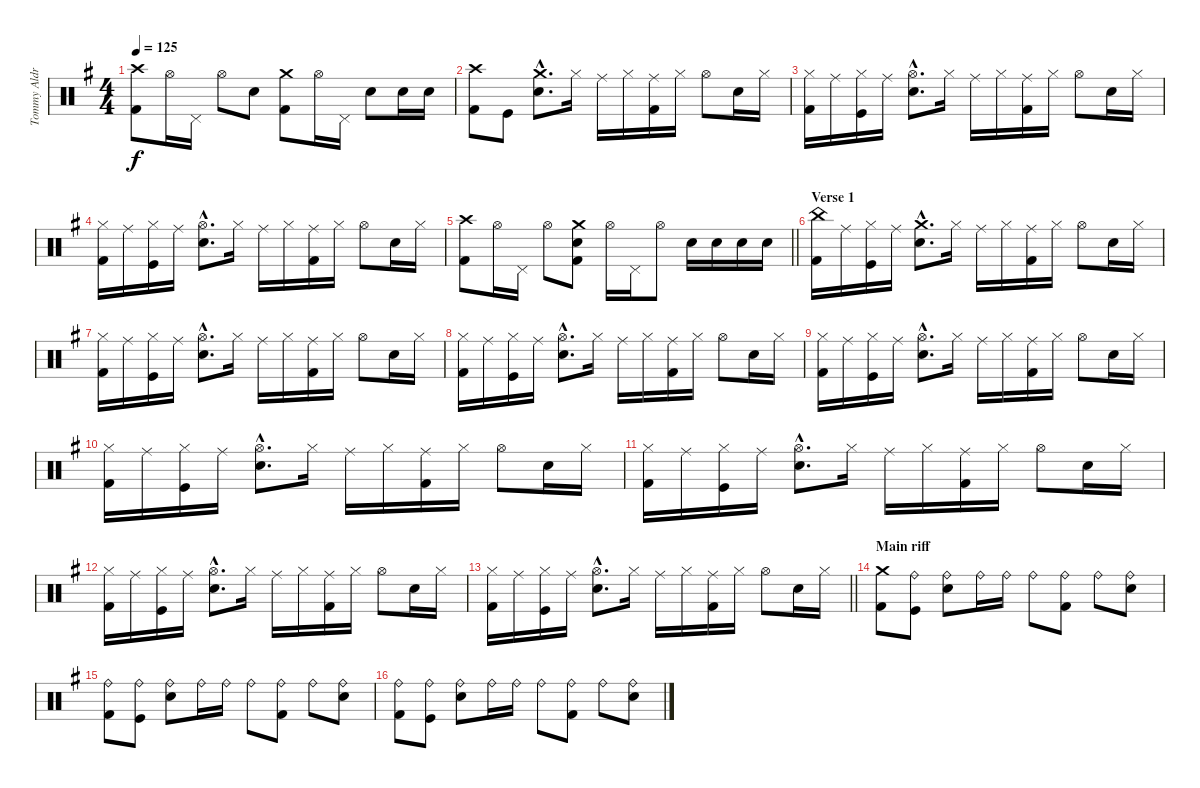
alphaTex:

\track ("Tommy Aldridge" "Tommy Aldr") {instrument percussion}
\staff {score}
\articulation defaults
\ts (4 4)
\tempo 125
\clef neutral
\ks eminor
("Crash high (hit)" "Kick (hit) 2").8{dy f} "Hi-Hat (open)".16 "Pedal Hi-Hat (hit)".16 "Hi-Hat (open)".8 "Snare (hit) 2".8 ("Crash medium (hit)" "Kick (hit) 2").8 "Hi-Hat (open)".16 "Pedal Hi-Hat (hit)".16 "Snare (hit) 2".8 "Snare (hit) 2".16 "Snare (hit) 2".16 |
("Crash high (hit)" "Kick (hit) 2").8 "Kick (hit)".8 ("Crash medium (hit)"{hac} "Snare (hit) 2"{hac}).8{d} "Hi-Hat (closed)".16 "Ride (middle)".16 "Hi-Hat (closed)".16 ("Ride (middle)" "Kick (hit) 2").16 "Hi-Hat (closed)".16 "Hi-Hat (open)".8 "Snare (hit) 2".16 "Hi-Hat (closed)".16 |
("Hi-Hat (closed)" "Kick (hit) 2").16 "Ride (middle)".16 ("Hi-Hat (closed)" "Kick (hit)").16 "Ride (middle)".16 ("Hi-Hat (open)"{hac} "Snare (hit) 2"{hac}).8{d} "Hi-Hat (closed)".16 "Ride (middle)".16 "Hi-Hat (closed)".16 ("Ride (middle)" "Kick (hit) 2").16 "Hi-Hat (closed)".16 "Hi-Hat (open)".8 "Snare (hit) 2".16 "Hi-Hat (closed)".16 |
("Hi-Hat (closed)" "Kick (hit) 2").16 "Ride (middle)".16 ("Hi-Hat (closed)" "Kick (hit)").16 "Ride (middle)".16 ("Hi-Hat (open)"{hac} "Snare (hit) 2"{hac}).8{d} "Hi-Hat (closed)".16 "Ride (middle)".16 "Hi-Hat (closed)".16 ("Ride (middle)" "Kick (hit) 2").16 "Hi-Hat (closed)".16 "Hi-Hat (open)".8 "Snare (hit) 2".16 "Hi-Hat (closed)".16 |
\barLineRight lightlight
("Crash high (hit)" "Kick (hit) 2").8 "Hi-Hat (open)".16 "Pedal Hi-Hat (hit)".16 "Hi-Hat (open)".8 ("Crash medium (hit)" "Electric Snare (hit)" "Kick (hit) 2").8 "Hi-Hat (open)".16 "Pedal Hi-Hat (hit)".16 "Hi-Hat (open)".8 "Snare (hit) 2".16 "Snare (hit) 2".16 "Snare (hit) 2".16 "Snare (hit) 2".16 |
\section ("" "Verse 1")
("China (hit)" "Kick (hit) 2").16 "Ride (middle)".16 ("Hi-Hat (closed)" "Kick (hit)").16 "Ride (middle)".16 ("Crash medium (hit)"{hac} "Snare (hit) 2"{hac}).8{d} "Hi-Hat (closed)".16 "Ride (middle)".16 "Hi-Hat (closed)".16 ("Ride (middle)" "Kick (hit) 2").16 "Hi-Hat (closed)".16 "Hi-Hat (open)".8 "Snare (hit) 2".16 "Hi-Hat (closed)".16 |
("Hi-Hat (closed)" "Kick (hit) 2").16 "Ride (middle)".16 ("Hi-Hat (closed)" "Kick (hit)").16 "Ride (middle)".16 ("Hi-Hat (open)"{hac} "Snare (hit) 2"{hac}).8{d} "Hi-Hat (closed)".16 "Ride (middle)".16 "Hi-Hat (closed)".16 ("Ride (middle)" "Kick (hit) 2").16 "Hi-Hat (closed)".16 "Hi-Hat (open)".8 "Snare (hit) 2".16 "Hi-Hat (closed)".16 |
("Hi-Hat (closed)" "Kick (hit) 2").16 "Ride (middle)".16 ("Hi-Hat (closed)" "Kick (hit)").16 "Ride (middle)".16 ("Hi-Hat (open)"{hac} "Snare (hit) 2"{hac}).8{d} "Hi-Hat (closed)".16 "Ride (middle)".16 "Hi-Hat (closed)".16 ("Ride (middle)" "Kick (hit) 2").16 "Hi-Hat (closed)".16 "Hi-Hat (open)".8 "Snare (hit) 2".16 "Hi-Hat (closed)".16 |
("Hi-Hat (closed)" "Kick (hit) 2").16 "Ride (middle)".16 ("Hi-Hat (closed)" "Kick (hit)").16 "Ride (middle)".16 ("Hi-Hat (open)"{hac} "Snare (hit) 2"{hac}).8{d} "Hi-Hat (closed)".16 "Ride (middle)".16 "Hi-Hat (closed)".16 ("Ride (middle)" "Kick (hit) 2").16 "Hi-Hat (closed)".16 "Hi-Hat (open)".8 "Snare (hit) 2".16 "Hi-Hat (closed)".16 |
("Hi-Hat (closed)" "Kick (hit) 2").16 "Ride (middle)".16 ("Hi-Hat (closed)" "Kick (hit)").16 "Ride (middle)".16 ("Hi-Hat (open)"{hac} "Snare (hit) 2"{hac}).8{d} "Hi-Hat (closed)".16 "Ride (middle)".16 "Hi-Hat (closed)".16 ("Ride (middle)" "Kick (hit) 2").16 "Hi-Hat (closed)".16 "Hi-Hat (open)".8 "Snare (hit) 2".16 "Hi-Hat (closed)".16 |
("Hi-Hat (closed)" "Kick (hit) 2").16 "Ride (middle)".16 ("Hi-Hat (closed)" "Kick (hit)").16 "Ride (middle)".16 ("Hi-Hat (open)"{hac} "Snare (hit) 2"{hac}).8{d} "Hi-Hat (closed)".16 "Ride (middle)".16 "Hi-Hat (closed)".16 ("Ride (middle)" "Kick (hit) 2").16 "Hi-Hat (closed)".16 "Hi-Hat (open)".8 "Snare (hit) 2".16 "Hi-Hat (closed)".16 |
("Hi-Hat (closed)" "Kick (hit) 2").16 "Ride (middle)".16 ("Hi-Hat (closed)" "Kick (hit)").16 "Ride (middle)".16 ("Hi-Hat (open)"{hac} "Snare (hit) 2"{hac}).8{d} "Hi-Hat (closed)".16 "Ride (middle)".16 "Hi-Hat (closed)".16 ("Ride (middle)" "Kick (hit) 2").16 "Hi-Hat (closed)".16 "Hi-Hat (open)".8 "Snare (hit) 2".16 "Hi-Hat (closed)".16 |
\barLineRight lightlight
("Hi-Hat (closed)" "Kick (hit) 2").16 "Ride (middle)".16 ("Hi-Hat (closed)" "Kick (hit)").16 "Ride (middle)".16 ("Hi-Hat (open)"{hac} "Snare (hit) 2"{hac}).8{d} "Hi-Hat (closed)".16 "Ride (middle)".16 "Hi-Hat (closed)".16 ("Ride (middle)" "Kick (hit) 2").16 "Hi-Hat (closed)".16 "Hi-Hat (open)".8 "Snare (hit) 2".16 "Hi-Hat (closed)".16 |
\section ("" "Main riff")
("Crash medium (hit)" "Kick (hit) 2").8 ("Ride (bell)" "Kick (hit)").8 ("Ride (bell)" "Snare (hit) 2").8 "Ride (bell)".16 "Ride (bell)".16 "Ride (bell)".8 ("Ride (bell)" "Kick (hit) 2").8 "Ride (bell)".8 ("Ride (bell)" "Snare (hit) 2").8 |
("Ride (bell)" "Kick (hit) 2").8 ("Ride (bell)" "Kick (hit)").8 ("Ride (bell)" "Snare (hit) 2").8 "Ride (bell)".16 "Ride (bell)".16 "Ride (bell)".8 ("Ride (bell)" "Kick (hit) 2").8 "Ride (bell)".8 ("Ride (bell)" "Snare (hit) 2").8 |
("Ride (bell)" "Kick (hit) 2").8 ("Ride (bell)" "Kick (hit)").8 ("Ride (bell)" "Snare (hit) 2").8 "Ride (bell)".16 "Ride (bell)".16 "Ride (bell)".8 ("Ride (bell)" "Kick (hit) 2").8 "Ride (bell)".8 ("Ride (bell)" "Snare (hit) 2").8
